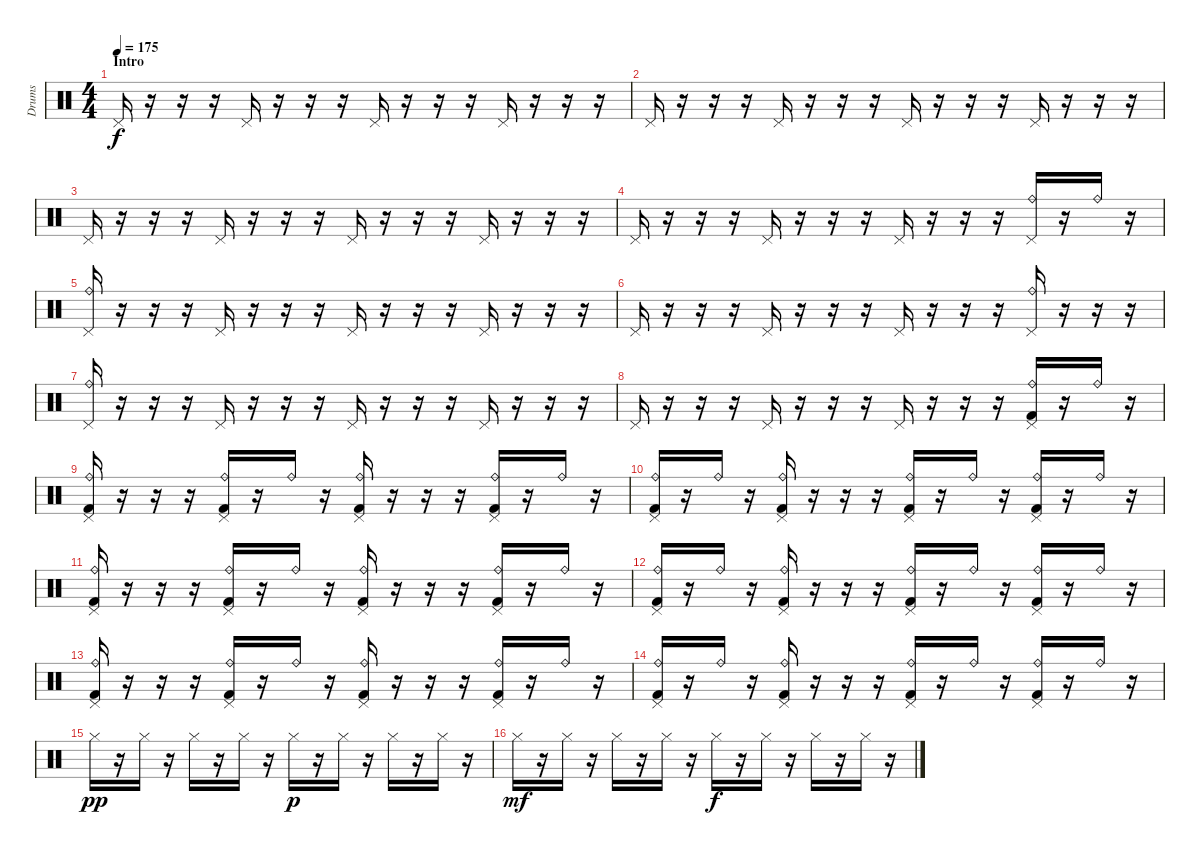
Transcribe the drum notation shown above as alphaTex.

\track ("Drums" "Drums") {instrument percussion}
\staff {score}
\articulation defaults
\ts (4 4)
\section ("" "Intro")
\tempo 175
\clef neutral
\ks c "Pedal Hi-Hat (hit)".16{dy f}
r.16 r.16 r.16 "Pedal Hi-Hat (hit)".16 r.16 r.16 r.16 "Pedal Hi-Hat (hit)".16 r.16 r.16 r.16 "Pedal Hi-Hat (hit)".16 r.16 r.16 r.16 |
"Pedal Hi-Hat (hit)".16 r.16 r.16 r.16 "Pedal Hi-Hat (hit)".16 r.16 r.16 r.16 "Pedal Hi-Hat (hit)".16 r.16 r.16 r.16 "Pedal Hi-Hat (hit)".16 r.16 r.16 r.16 |
"Pedal Hi-Hat (hit)".16 r.16 r.16 r.16 "Pedal Hi-Hat (hit)".16 r.16 r.16 r.16 "Pedal Hi-Hat (hit)".16 r.16 r.16 r.16 "Pedal Hi-Hat (hit)".16 r.16 r.16 r.16 |
"Pedal Hi-Hat (hit)".16 r.16 r.16 r.16 "Pedal Hi-Hat (hit)".16 r.16 r.16 r.16 "Pedal Hi-Hat (hit)".16 r.16 r.16 r.16 ("Pedal Hi-Hat (hit)" "Ride (bell)").16 r.16 "Ride (bell)".16 r.16 |
("Pedal Hi-Hat (hit)" "Ride (bell)").16 r.16 r.16 r.16 "Pedal Hi-Hat (hit)".16 r.16 r.16 r.16 "Pedal Hi-Hat (hit)".16 r.16 r.16 r.16 "Pedal Hi-Hat (hit)".16 r.16 r.16 r.16 |
"Pedal Hi-Hat (hit)".16 r.16 r.16 r.16 "Pedal Hi-Hat (hit)".16 r.16 r.16 r.16 "Pedal Hi-Hat (hit)".16 r.16 r.16 r.16 ("Pedal Hi-Hat (hit)" "Ride (bell)").16 r.16 r.16 r.16 |
("Pedal Hi-Hat (hit)" "Ride (bell)").16 r.16 r.16 r.16 "Pedal Hi-Hat (hit)".16 r.16 r.16 r.16 "Pedal Hi-Hat (hit)".16 r.16 r.16 r.16 "Pedal Hi-Hat (hit)".16 r.16 r.16 r.16 |
"Pedal Hi-Hat (hit)".16 r.16 r.16 r.16 "Pedal Hi-Hat (hit)".16 r.16 r.16 r.16 "Pedal Hi-Hat (hit)".16 r.16 r.16 r.16 ("Pedal Hi-Hat (hit)" "Ride (bell)" "Kick (hit) 2").16 r.16 "Ride (bell)".16 r.16 |
("Pedal Hi-Hat (hit)" "Ride (bell)" "Kick (hit) 2").16 r.16 r.16 r.16 ("Pedal Hi-Hat (hit)" "Ride (bell)" "Kick (hit) 2").16 r.16 "Ride (bell)".16 r.16 ("Pedal Hi-Hat (hit)" "Ride (bell)" "Kick (hit) 2").16 r.16 r.16 r.16 ("Pedal Hi-Hat (hit)" "Ride (bell)" "Kick (hit) 2").16 r.16 "Ride (bell)".16 r.16 |
("Pedal Hi-Hat (hit)" "Ride (bell)" "Kick (hit) 2").16 r.16 "Ride (bell)".16 r.16 ("Pedal Hi-Hat (hit)" "Ride (bell)" "Kick (hit) 2").16 r.16 r.16 r.16 ("Pedal Hi-Hat (hit)" "Ride (bell)" "Kick (hit) 2").16 r.16 "Ride (bell)".16 r.16 ("Pedal Hi-Hat (hit)" "Ride (bell)" "Kick (hit) 2").16 r.16 "Ride (bell)".16 r.16 |
("Pedal Hi-Hat (hit)" "Ride (bell)" "Kick (hit) 2").16 r.16 r.16 r.16 ("Pedal Hi-Hat (hit)" "Ride (bell)" "Kick (hit) 2").16 r.16 "Ride (bell)".16 r.16 ("Pedal Hi-Hat (hit)" "Ride (bell)" "Kick (hit) 2").16 r.16 r.16 r.16 ("Pedal Hi-Hat (hit)" "Ride (bell)" "Kick (hit) 2").16 r.16 "Ride (bell)".16 r.16 |
("Pedal Hi-Hat (hit)" "Ride (bell)" "Kick (hit) 2").16 r.16 "Ride (bell)".16 r.16 ("Pedal Hi-Hat (hit)" "Ride (bell)" "Kick (hit) 2").16 r.16 r.16 r.16 ("Pedal Hi-Hat (hit)" "Ride (bell)" "Kick (hit) 2").16 r.16 "Ride (bell)".16 r.16 ("Pedal Hi-Hat (hit)" "Ride (bell)" "Kick (hit) 2").16 r.16 "Ride (bell)".16 r.16 |
("Pedal Hi-Hat (hit)" "Ride (bell)" "Kick (hit) 2").16 r.16 r.16 r.16 ("Pedal Hi-Hat (hit)" "Ride (bell)" "Kick (hit) 2").16 r.16 "Ride (bell)".16 r.16 ("Pedal Hi-Hat (hit)" "Ride (bell)" "Kick (hit) 2").16 r.16 r.16 r.16 ("Pedal Hi-Hat (hit)" "Ride (bell)" "Kick (hit) 2").16 r.16 "Ride (bell)".16 r.16 |
("Pedal Hi-Hat (hit)" "Ride (bell)" "Kick (hit) 2").16 r.16 "Ride (bell)".16 r.16 ("Pedal Hi-Hat (hit)" "Ride (bell)" "Kick (hit) 2").16 r.16 r.16 r.16 ("Pedal Hi-Hat (hit)" "Ride (bell)" "Kick (hit) 2").16 r.16 "Ride (bell)".16 r.16 ("Pedal Hi-Hat (hit)" "Ride (bell)" "Kick (hit) 2").16 r.16 "Ride (bell)".16 r.16 |
"Hi-Hat (closed)".16{dy pp} r.16 "Hi-Hat (closed)".16 r.16 "Hi-Hat (closed)".16 r.16 "Hi-Hat (closed)".16 r.16 "Hi-Hat (closed)".16{dy p} r.16 "Hi-Hat (closed)".16 r.16 "Hi-Hat (closed)".16 r.16 "Hi-Hat (closed)".16 r.16 |
"Hi-Hat (closed)".16{dy mf} r.16 "Hi-Hat (closed)".16 r.16 "Hi-Hat (closed)".16 r.16 "Hi-Hat (closed)".16 r.16 "Hi-Hat (closed)".16{dy f} r.16 "Hi-Hat (closed)".16 r.16 "Hi-Hat (closed)".16 r.16 "Hi-Hat (closed)".16 r.16
